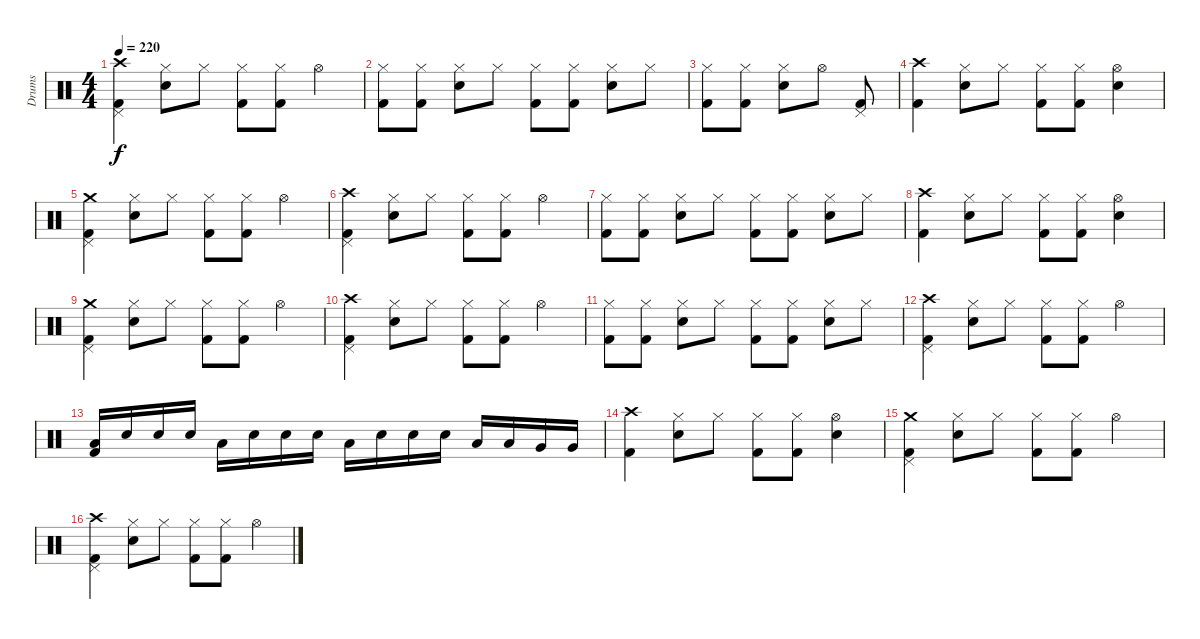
\track ("Drums" "Drums") {instrument percussion}
\staff {score}
\articulation defaults
\ts (4 4)
\tempo 220
\clef neutral
\ks c
("Crash high (hit)" "Pedal Hi-Hat (hit)" "Kick (hit) 2").4{dy f} ("Hi-Hat (closed)" "Snare (hit) 2").8 "Hi-Hat (closed)".8 ("Hi-Hat (closed)" "Kick (hit) 2").8 ("Hi-Hat (closed)" "Kick (hit) 2").8 "Hi-Hat (open)".4 |
("Hi-Hat (closed)" "Kick (hit) 2").8 ("Hi-Hat (closed)" "Kick (hit) 2").8 ("Hi-Hat (closed)" "Snare (hit) 2").8 "Hi-Hat (closed)".8 ("Hi-Hat (closed)" "Kick (hit) 2").8 ("Hi-Hat (closed)" "Kick (hit) 2").8 ("Hi-Hat (closed)" "Snare (hit) 2").8 "Hi-Hat (closed)".8 |
("Hi-Hat (closed)" "Kick (hit) 2").8 ("Hi-Hat (closed)" "Kick (hit) 2").8 ("Hi-Hat (closed)" "Snare (hit) 2").8 "Hi-Hat (open)".8 ("Pedal Hi-Hat (hit)" "Kick (hit) 2").8 |
("Crash high (hit)" "Kick (hit) 2").4 ("Hi-Hat (closed)" "Snare (hit) 2").8 "Hi-Hat (closed)".8 ("Hi-Hat (closed)" "Kick (hit) 2").8 ("Hi-Hat (closed)" "Kick (hit) 2").8 ("Hi-Hat (open)" "Snare (hit) 2").4 |
("Crash medium (hit)" "Pedal Hi-Hat (hit)" "Kick (hit) 2").4 ("Hi-Hat (closed)" "Snare (hit) 2").8 "Hi-Hat (closed)".8 ("Hi-Hat (closed)" "Kick (hit) 2").8 ("Hi-Hat (closed)" "Kick (hit) 2").8 "Hi-Hat (open)".4 |
("Crash high (hit)" "Pedal Hi-Hat (hit)" "Kick (hit) 2").4 ("Hi-Hat (closed)" "Snare (hit) 2").8 "Hi-Hat (closed)".8 ("Hi-Hat (closed)" "Kick (hit) 2").8 ("Hi-Hat (closed)" "Kick (hit) 2").8 "Hi-Hat (open)".4 |
("Hi-Hat (closed)" "Kick (hit) 2").8 ("Hi-Hat (closed)" "Kick (hit) 2").8 ("Hi-Hat (closed)" "Snare (hit) 2").8 "Hi-Hat (closed)".8 ("Hi-Hat (closed)" "Kick (hit) 2").8 ("Hi-Hat (closed)" "Kick (hit) 2").8 ("Hi-Hat (closed)" "Snare (hit) 2").8 "Hi-Hat (closed)".8 |
("Crash high (hit)" "Kick (hit) 2").4 ("Hi-Hat (closed)" "Snare (hit) 2").8 "Hi-Hat (closed)".8 ("Hi-Hat (closed)" "Kick (hit) 2").8 ("Hi-Hat (closed)" "Kick (hit) 2").8 ("Hi-Hat (open)" "Snare (hit) 2").4 |
("Crash medium (hit)" "Pedal Hi-Hat (hit)" "Kick (hit) 2").4 ("Hi-Hat (closed)" "Snare (hit) 2").8 "Hi-Hat (closed)".8 ("Hi-Hat (closed)" "Kick (hit) 2").8 ("Hi-Hat (closed)" "Kick (hit) 2").8 "Hi-Hat (open)".4 |
("Crash high (hit)" "Pedal Hi-Hat (hit)" "Kick (hit) 2").4 ("Hi-Hat (closed)" "Snare (hit) 2").8 "Hi-Hat (closed)".8 ("Hi-Hat (closed)" "Kick (hit) 2").8 ("Hi-Hat (closed)" "Kick (hit) 2").8 "Hi-Hat (open)".4 |
("Hi-Hat (closed)" "Kick (hit) 2").8 ("Hi-Hat (closed)" "Kick (hit) 2").8 ("Hi-Hat (closed)" "Snare (hit) 2").8 "Hi-Hat (closed)".8 ("Hi-Hat (closed)" "Kick (hit) 2").8 ("Hi-Hat (closed)" "Kick (hit) 2").8 ("Hi-Hat (closed)" "Snare (hit) 2").8 "Hi-Hat (closed)".8 |
("Crash high (hit)" "Pedal Hi-Hat (hit)" "Kick (hit) 2").4 ("Hi-Hat (closed)" "Snare (hit) 2").8 "Hi-Hat (closed)".8 ("Hi-Hat (closed)" "Kick (hit) 2").8 ("Hi-Hat (closed)" "Kick (hit) 2").8 "Hi-Hat (open)".4 |
("Low Tom (hit)" "Kick (hit) 2").16 "Snare (hit) 2".16 "Snare (hit) 2".16 "Snare (hit) 2".16 "Low Tom (hit)".16 "Snare (hit) 2".16 "Snare (hit) 2".16 "Snare (hit) 2".16 "Low Tom (hit)".16 "Snare (hit) 2".16 "Snare (hit) 2".16 "Snare (hit) 2".16 "Low Tom (hit)".16 "Low Tom (hit)".16 "Very Low Tom (hit)".16 "Very Low Tom (hit)".16 |
("Crash high (hit)" "Kick (hit) 2").4 ("Hi-Hat (closed)" "Snare (hit) 2").8 "Hi-Hat (closed)".8 ("Hi-Hat (closed)" "Kick (hit) 2").8 ("Hi-Hat (closed)" "Kick (hit) 2").8 ("Hi-Hat (open)" "Snare (hit) 2").4 |
("Crash medium (hit)" "Pedal Hi-Hat (hit)" "Kick (hit) 2").4 ("Hi-Hat (closed)" "Snare (hit) 2").8 "Hi-Hat (closed)".8 ("Hi-Hat (closed)" "Kick (hit) 2").8 ("Hi-Hat (closed)" "Kick (hit) 2").8 "Hi-Hat (open)".4 |
("Crash high (hit)" "Pedal Hi-Hat (hit)" "Kick (hit) 2").4 ("Hi-Hat (closed)" "Snare (hit) 2").8 "Hi-Hat (closed)".8 ("Hi-Hat (closed)" "Kick (hit) 2").8 ("Hi-Hat (closed)" "Kick (hit) 2").8 "Hi-Hat (open)".4
